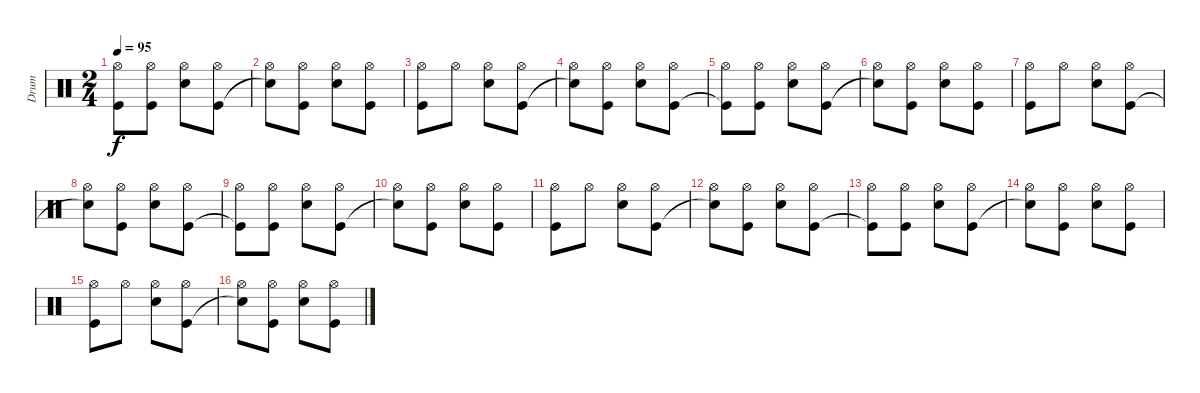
\track ("Drum" "Drum") {instrument percussion}
\staff {score}
\articulation defaults
\ts (2 4)
\tempo 95
\clef neutral
\ks c
("Kick (hit)"{t} "Hi-Hat (open)").8{dy f} ("Kick (hit)" "Hi-Hat (open)").8 ("Electric Snare (hit)" "Hi-Hat (open)").8 ("Kick (hit)" "Hi-Hat (open)").8 |
("Snare (hit)"{t} "Hi-Hat (open)").8 ("Kick (hit)" "Hi-Hat (open)").8 ("Electric Snare (hit)" "Hi-Hat (open)").8 ("Kick (hit)" "Hi-Hat (open)").8 |
("Kick (hit)" "Hi-Hat (open)").8 "Hi-Hat (open)".8 ("Electric Snare (hit)" "Hi-Hat (open)").8 ("Kick (hit)" "Hi-Hat (open)").8 |
("Snare (hit)"{t} "Hi-Hat (open)").8 ("Kick (hit)" "Hi-Hat (open)").8 ("Electric Snare (hit)" "Hi-Hat (open)").8 ("Kick (hit)" "Hi-Hat (open)").8 |
("Kick (hit)"{t} "Hi-Hat (open)").8 ("Kick (hit)" "Hi-Hat (open)").8 ("Electric Snare (hit)" "Hi-Hat (open)").8 ("Kick (hit)" "Hi-Hat (open)").8 |
("Snare (hit)"{t} "Hi-Hat (open)").8 ("Kick (hit)" "Hi-Hat (open)").8 ("Electric Snare (hit)" "Hi-Hat (open)").8 ("Kick (hit)" "Hi-Hat (open)").8 |
("Kick (hit)" "Hi-Hat (open)").8 "Hi-Hat (open)".8 ("Electric Snare (hit)" "Hi-Hat (open)").8 ("Kick (hit)" "Hi-Hat (open)").8 |
("Snare (hit)"{t} "Hi-Hat (open)").8 ("Kick (hit)" "Hi-Hat (open)").8 ("Electric Snare (hit)" "Hi-Hat (open)").8 ("Kick (hit)" "Hi-Hat (open)").8 |
("Kick (hit)"{t} "Hi-Hat (open)").8 ("Kick (hit)" "Hi-Hat (open)").8 ("Electric Snare (hit)" "Hi-Hat (open)").8 ("Kick (hit)" "Hi-Hat (open)").8 |
("Snare (hit)"{t} "Hi-Hat (open)").8 ("Kick (hit)" "Hi-Hat (open)").8 ("Electric Snare (hit)" "Hi-Hat (open)").8 ("Kick (hit)" "Hi-Hat (open)").8 |
("Kick (hit)" "Hi-Hat (open)").8 "Hi-Hat (open)".8 ("Electric Snare (hit)" "Hi-Hat (open)").8 ("Kick (hit)" "Hi-Hat (open)").8 |
("Snare (hit)"{t} "Hi-Hat (open)").8 ("Kick (hit)" "Hi-Hat (open)").8 ("Electric Snare (hit)" "Hi-Hat (open)").8 ("Kick (hit)" "Hi-Hat (open)").8 |
("Kick (hit)"{t} "Hi-Hat (open)").8 ("Kick (hit)" "Hi-Hat (open)").8 ("Electric Snare (hit)" "Hi-Hat (open)").8 ("Kick (hit)" "Hi-Hat (open)").8 |
("Snare (hit)"{t} "Hi-Hat (open)").8 ("Kick (hit)" "Hi-Hat (open)").8 ("Electric Snare (hit)" "Hi-Hat (open)").8 ("Kick (hit)" "Hi-Hat (open)").8 |
("Kick (hit)" "Hi-Hat (open)").8 "Hi-Hat (open)".8 ("Electric Snare (hit)" "Hi-Hat (open)").8 ("Kick (hit)" "Hi-Hat (open)").8 |
("Snare (hit)"{t} "Hi-Hat (open)").8 ("Kick (hit)" "Hi-Hat (open)").8 ("Electric Snare (hit)" "Hi-Hat (open)").8 ("Kick (hit)" "Hi-Hat (open)").8
